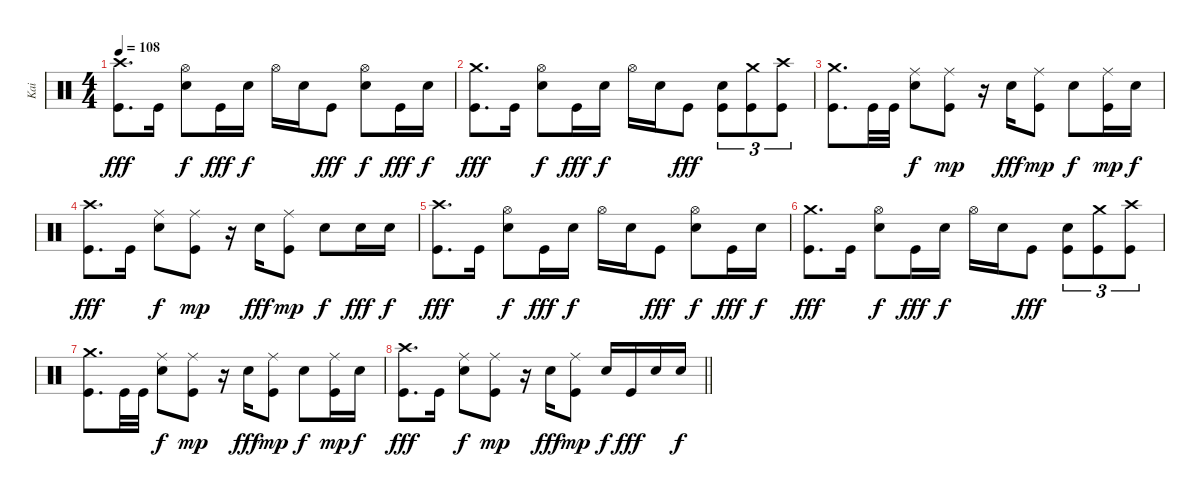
\track ("Kai" "Kai") {instrument percussion}
\staff {score}
\articulation defaults
\ts (4 4)
\tempo 108
\clef neutral
\ks c
("Crash high (hit)" "Kick (hit)").8{d dy fff} "Kick (hit)".16 ("Snare (hit) 2" "Hi-Hat (open)").8{dy f} "Kick (hit)".16{dy fff} "Snare (hit) 2".16{dy f} "Hi-Hat (open)".16 "Snare (hit) 2".16 "Kick (hit)".8{dy fff} ("Snare (hit) 2" "Hi-Hat (open)").8{dy f} "Kick (hit)".16{dy fff} "Snare (hit) 2".16{dy f} |
("Crash medium (hit)" "Kick (hit)").8{d dy fff} "Kick (hit)".16 ("Snare (hit) 2" "Hi-Hat (open)").8{dy f} "Kick (hit)".16{dy fff} "Snare (hit) 2".16{dy f} "Hi-Hat (open)".16 "Snare (hit) 2".16 "Kick (hit)".8{dy fff} ("Kick (hit)" "Snare (hit) 2").8{tu (3 2)} ("Kick (hit)" "Crash medium (hit)").8{tu (3 2)} ("Kick (hit)" "Crash high (hit)").8{tu (3 2)} |
("Crash medium (hit)" "Kick (hit)").8{d} "Kick (hit)".32 "Kick (hit)".32 ("Snare (hit) 2" "Ride (middle)").8{dy f} ("Kick (hit)" "Ride (middle)").8{dy mp} r.16 "Snare (hit) 2".16{dy fff} ("Kick (hit)" "Ride (middle)").8{dy mp} "Snare (hit) 2".8{dy f} ("Kick (hit)" "Ride (middle)").16{dy mp} "Snare (hit) 2".16{dy f} |
("Crash high (hit)" "Kick (hit)").8{d dy fff} "Kick (hit)".16 ("Snare (hit) 2" "Ride (middle)").8{dy f} ("Kick (hit)" "Ride (middle)").8{dy mp} r.16 "Snare (hit) 2".16{dy fff} ("Kick (hit)" "Ride (middle)").8{dy mp} "Snare (hit) 2".8{dy f} "Snare (hit) 2".16{dy fff} "Snare (hit) 2".16{dy f} |
("Crash high (hit)" "Kick (hit)").8{d dy fff} "Kick (hit)".16 ("Snare (hit) 2" "Hi-Hat (open)").8{dy f} "Kick (hit)".16{dy fff} "Snare (hit) 2".16{dy f} "Hi-Hat (open)".16 "Snare (hit) 2".16 "Kick (hit)".8{dy fff} ("Snare (hit) 2" "Hi-Hat (open)").8{dy f} "Kick (hit)".16{dy fff} "Snare (hit) 2".16{dy f} |
("Crash medium (hit)" "Kick (hit)").8{d dy fff} "Kick (hit)".16 ("Snare (hit) 2" "Hi-Hat (open)").8{dy f} "Kick (hit)".16{dy fff} "Snare (hit) 2".16{dy f} "Hi-Hat (open)".16 "Snare (hit) 2".16 "Kick (hit)".8{dy fff} ("Kick (hit)" "Snare (hit) 2").8{tu (3 2)} ("Kick (hit)" "Crash medium (hit)").8{tu (3 2)} ("Kick (hit)" "Crash high (hit)").8{tu (3 2)} |
("Crash medium (hit)" "Kick (hit)").8{d} "Kick (hit)".32 "Kick (hit)".32 ("Snare (hit) 2" "Ride (middle)").8{dy f} ("Kick (hit)" "Ride (middle)").8{dy mp} r.16 "Snare (hit) 2".16{dy fff} ("Kick (hit)" "Ride (middle)").8{dy mp} "Snare (hit) 2".8{dy f} ("Kick (hit)" "Ride (middle)").16{dy mp} "Snare (hit) 2".16{dy f} |
\barLineRight lightlight
("Crash high (hit)" "Kick (hit)").8{d dy fff} "Kick (hit)".16 ("Snare (hit) 2" "Ride (middle)").8{dy f} ("Kick (hit)" "Ride (middle)").8{dy mp} r.16 "Snare (hit) 2".16{dy fff} ("Kick (hit)" "Ride (middle)").8{dy mp} "Snare (hit) 2".16{dy f} "Kick (hit)".16{dy fff} "Snare (hit) 2".16 "Snare (hit) 2".16{dy f}
